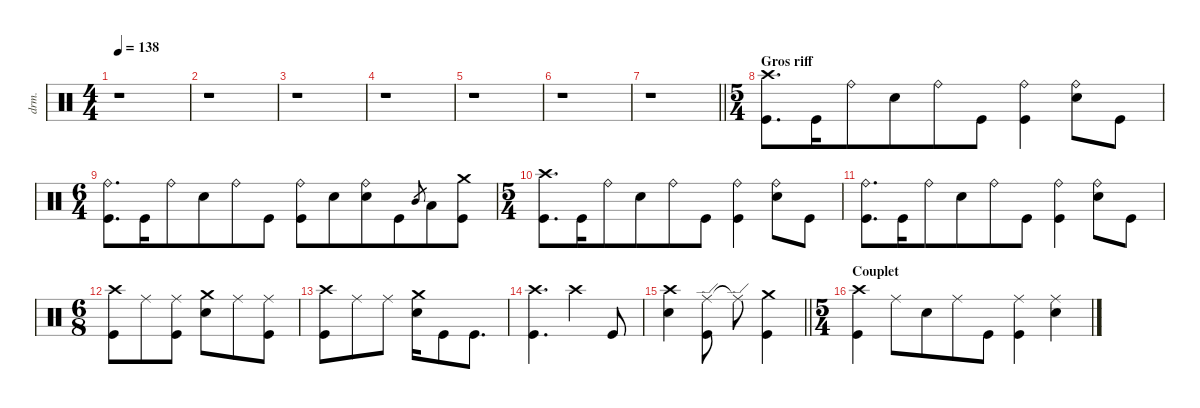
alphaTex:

\defaultSystemsLayout 4
\hideDynamics
\bracketExtendMode nobrackets
\track ("Percussions" "drm.") {instrument percussion}
\staff {score}
\articulation defaults
\ts (4 4)
\tempo 138
\clef neutral
\ks aminor
r.1{dy f} |
r.1 |
r.1 |
r.1 |
r.1 |
r.1 |
\barLineRight lightlight
r.1 |
\ts (5 4)
\beaming (8 6 4)
\section ("" "Gros riff")
("Crash high (hit)" "Kick (hit)").8{d beam Down} "Kick (hit)".16{beam Down} "Ride (bell)".8{beam Down} "Snare (hit) 2".8{beam Down} "Ride (bell)".8{beam Down} "Kick (hit)".8{beam Down} ("Kick (hit)" "Ride (bell)").4{beam Down} ("Ride (bell)" "Snare (hit) 2").8{beam Down} "Kick (hit)".8{beam Down} |
\ts (6 4)
\beaming (8 6 6)
("Ride (bell)" "Kick (hit)").8{d beam Down} "Kick (hit)".16{beam Down} "Ride (bell)".8{beam Down} "Snare (hit) 2".8{beam Down} "Ride (bell)".8{beam Down} "Kick (hit)".8{beam Down} ("Kick (hit)" "Ride (bell)").8{beam Down} "Snare (hit) 2".8{beam Down} ("Ride (bell)" "Snare (hit) 2").8{beam Down} "Kick (hit)".8{beam Down} "Mid Tom (hit)".8{gr beam Up} "Low Tom (hit)".8{beam Down} ("Crash medium (hit)" "Kick (hit)").8{beam Down} |
\ts (5 4)
\beaming (8 6 4)
("Crash high (hit)" "Kick (hit)").8{d beam Down} "Kick (hit)".16{beam Down} "Ride (bell)".8{beam Down} "Snare (hit) 2".8{beam Down} "Ride (bell)".8{beam Down} "Kick (hit)".8{beam Down} ("Kick (hit)" "Ride (bell)").4{beam Down} ("Ride (bell)" "Snare (hit) 2").8{beam Down} "Kick (hit)".8{beam Down} |
("Ride (bell)" "Kick (hit)").8{d beam Down} "Kick (hit)".16{beam Down} "Ride (bell)".8{beam Down} "Snare (hit) 2".8{beam Down} "Ride (bell)".8{beam Down} "Kick (hit)".8{beam Down} ("Kick (hit)" "Ride (bell)").4{beam Down} ("Ride (bell)" "Snare (hit) 2").8{beam Down} "Kick (hit)".8{beam Down} |
\ts (6 8)
\beaming (8 3 3)
("Crash high (hit)" "Kick (hit)").8{beam Down} "Ride (middle)".8{beam Down} ("Ride (middle)" "Kick (hit)").8{beam Down} ("Crash medium (hit)" "Snare (hit) 2").8{beam Down} "Ride (middle)".8{beam Down} ("Ride (middle)" "Kick (hit)").8{beam Down} |
("Crash high (hit)" "Kick (hit)").8{beam Down} "Ride (middle)".8{beam Down} "Ride (middle)".8{beam Down} ("Crash medium (hit)" "Snare (hit) 2").16{beam Down} "Kick (hit)".8{beam Down} "Kick (hit)".8{d beam Down} |
("Crash high (hit)" "Kick (hit)").4{d beam Down} "Crash high (hit)".4{beam Down} "Kick (hit)".8{beam Up} |
\barLineRight lightlight
("Crash high (hit)" "Snare (hit) 2").4{beam Down} ("Ride (edge)" "Kick (hit)").8{beam Down} "Ride (edge)"{t}.8{beam Down} ("Crash medium (hit)" "Kick (hit)").4{beam Down} |
\ts (5 4)
\beaming (8 6 4)
\section ("" "Couplet")
("Crash high (hit)" "Kick (hit)").4{beam Down} "Ride (middle)".8{beam Down} "Snare (hit) 2".8{beam Down} "Ride (middle)".8{beam Down} "Kick (hit)".8{beam Down} ("Ride (middle)" "Kick (hit)").4{beam Down} ("Ride (middle)" "Snare (hit) 2").4{beam Down}
